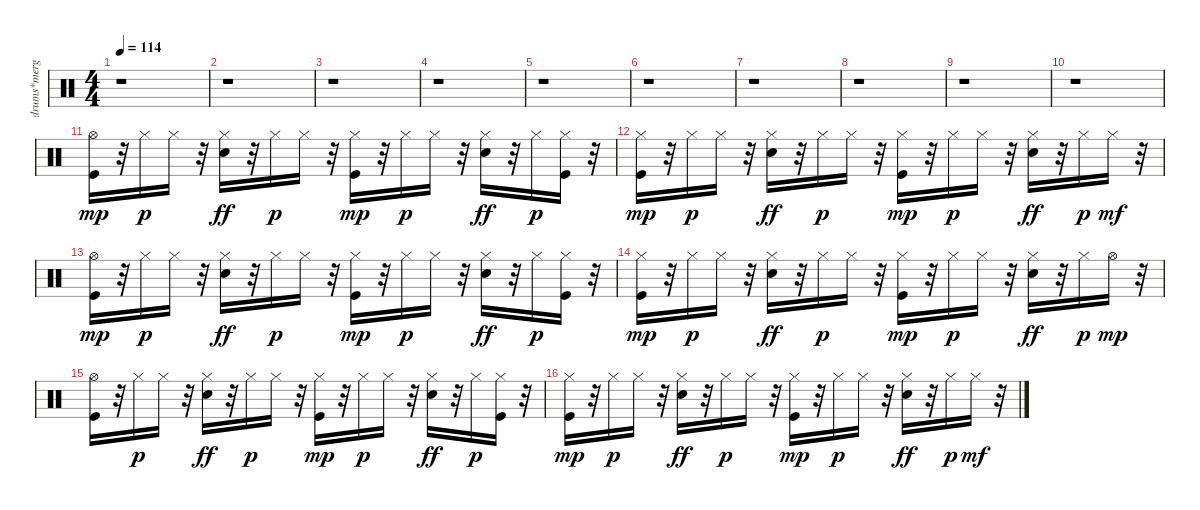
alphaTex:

\track ("drums*merged" "drums*merg") {instrument percussion}
\staff {score}
\articulation defaults
\ts (4 4)
\tempo 114
\clef neutral
\ks c
r.1{dy mp} |
r.1 |
r.1 |
r.1 |
r.1 |
r.1 |
r.1 |
r.1 |
r.1 |
r.1 |
("Kick (hit)" "Hi-Hat (open)").16 r.32 "Hi-Hat (closed)".16{dy p} "Hi-Hat (closed)".16 r.32 ("Hi-Hat (closed)" "Snare (hit) 2").16{dy ff} r.32 "Hi-Hat (closed)".16{dy p} "Hi-Hat (closed)".16 r.32 ("Kick (hit)" "Hi-Hat (closed)").16{dy mp} r.32 "Hi-Hat (closed)".16{dy p} "Hi-Hat (closed)".16 r.32 ("Hi-Hat (closed)" "Snare (hit) 2").16{dy ff} r.32 "Hi-Hat (closed)".16{dy p} ("Kick (hit)" "Hi-Hat (closed)").16 r.32 |
("Hi-Hat (closed)" "Kick (hit)").16{dy mp} r.32 "Hi-Hat (closed)".16{dy p} "Hi-Hat (closed)".16 r.32 ("Hi-Hat (closed)" "Snare (hit) 2").16{dy ff} r.32 "Hi-Hat (closed)".16{dy p} "Hi-Hat (closed)".16 r.32 ("Hi-Hat (closed)" "Kick (hit)").16{dy mp} r.32 "Hi-Hat (closed)".16{dy p} "Hi-Hat (closed)".16 r.32 ("Hi-Hat (closed)" "Snare (hit) 2").16{dy ff} r.32 "Hi-Hat (closed)".16{dy p} "Hi-Hat (closed)".16{dy mf} r.32 |
("Kick (hit)" "Hi-Hat (open)").16{dy mp} r.32 "Hi-Hat (closed)".16{dy p} "Hi-Hat (closed)".16 r.32 ("Hi-Hat (closed)" "Snare (hit) 2").16{dy ff} r.32 "Hi-Hat (closed)".16{dy p} "Hi-Hat (closed)".16 r.32 ("Kick (hit)" "Hi-Hat (closed)").16{dy mp} r.32 "Hi-Hat (closed)".16{dy p} "Hi-Hat (closed)".16 r.32 ("Hi-Hat (closed)" "Snare (hit) 2").16{dy ff} r.32 "Hi-Hat (closed)".16{dy p} ("Kick (hit)" "Hi-Hat (closed)").16 r.32 |
("Hi-Hat (closed)" "Kick (hit)").16{dy mp} r.32 "Hi-Hat (closed)".16{dy p} "Hi-Hat (closed)".16 r.32 ("Hi-Hat (closed)" "Snare (hit) 2").16{dy ff} r.32 "Hi-Hat (closed)".16{dy p} "Hi-Hat (closed)".16 r.32 ("Hi-Hat (closed)" "Kick (hit)").16{dy mp} r.32 "Hi-Hat (closed)".16{dy p} "Hi-Hat (closed)".16 r.32 ("Hi-Hat (closed)" "Snare (hit) 2").16{dy ff} r.32 "Hi-Hat (closed)".16{dy p} "Hi-Hat (open)".16{dy mp} r.32 |
("Kick (hit)" "Hi-Hat (open)").16 r.32 "Hi-Hat (closed)".16{dy p} "Hi-Hat (closed)".16 r.32 ("Hi-Hat (closed)" "Snare (hit) 2").16{dy ff} r.32 "Hi-Hat (closed)".16{dy p} "Hi-Hat (closed)".16 r.32 ("Kick (hit)" "Hi-Hat (closed)").16{dy mp} r.32 "Hi-Hat (closed)".16{dy p} "Hi-Hat (closed)".16 r.32 ("Hi-Hat (closed)" "Snare (hit) 2").16{dy ff} r.32 "Hi-Hat (closed)".16{dy p} ("Kick (hit)" "Hi-Hat (closed)").16 r.32 |
("Hi-Hat (closed)" "Kick (hit)").16{dy mp} r.32 "Hi-Hat (closed)".16{dy p} "Hi-Hat (closed)".16 r.32 ("Hi-Hat (closed)" "Snare (hit) 2").16{dy ff} r.32 "Hi-Hat (closed)".16{dy p} "Hi-Hat (closed)".16 r.32 ("Hi-Hat (closed)" "Kick (hit)").16{dy mp} r.32 "Hi-Hat (closed)".16{dy p} "Hi-Hat (closed)".16 r.32 ("Hi-Hat (closed)" "Snare (hit) 2").16{dy ff} r.32 "Hi-Hat (closed)".16{dy p} "Hi-Hat (closed)".16{dy mf} r.32
